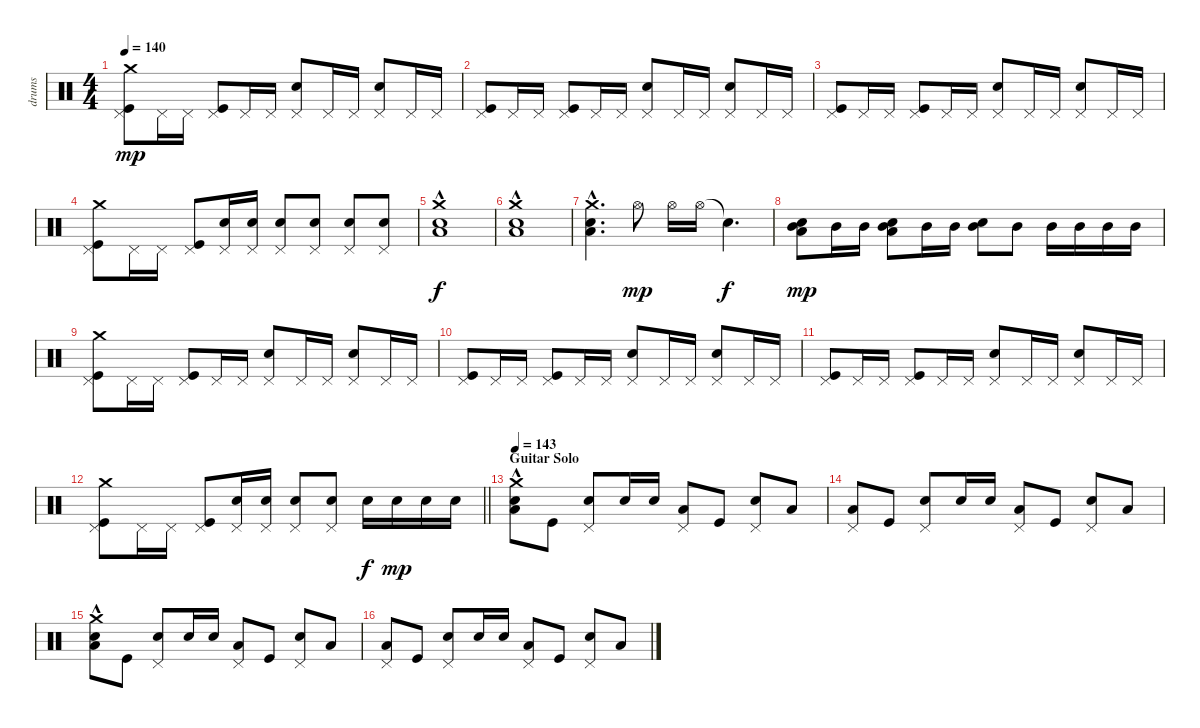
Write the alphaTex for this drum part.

\track ("drums" "drums") {instrument percussion}
\staff {score}
\articulation defaults
\ts (4 4)
\tempo 140
\clef neutral
\ks c
("Crash medium (hit)" "Pedal Hi-Hat (hit)" "Kick (hit)").8{dy mp} "Pedal Hi-Hat (hit)".16 "Pedal Hi-Hat (hit)".16 ("Pedal Hi-Hat (hit)" "Kick (hit)").8 "Pedal Hi-Hat (hit)".16 "Pedal Hi-Hat (hit)".16 ("Pedal Hi-Hat (hit)" "Snare (hit) 2").8 "Pedal Hi-Hat (hit)".16 "Pedal Hi-Hat (hit)".16 ("Pedal Hi-Hat (hit)" "Snare (hit) 2").8 "Pedal Hi-Hat (hit)".16 "Pedal Hi-Hat (hit)".16 |
("Pedal Hi-Hat (hit)" "Kick (hit)").8 "Pedal Hi-Hat (hit)".16 "Pedal Hi-Hat (hit)".16 ("Pedal Hi-Hat (hit)" "Kick (hit)").8 "Pedal Hi-Hat (hit)".16 "Pedal Hi-Hat (hit)".16 ("Pedal Hi-Hat (hit)" "Snare (hit) 2").8 "Pedal Hi-Hat (hit)".16 "Pedal Hi-Hat (hit)".16 ("Pedal Hi-Hat (hit)" "Snare (hit) 2").8 "Pedal Hi-Hat (hit)".16 "Pedal Hi-Hat (hit)".16 |
("Pedal Hi-Hat (hit)" "Kick (hit)").8 "Pedal Hi-Hat (hit)".16 "Pedal Hi-Hat (hit)".16 ("Pedal Hi-Hat (hit)" "Kick (hit)").8 "Pedal Hi-Hat (hit)".16 "Pedal Hi-Hat (hit)".16 ("Pedal Hi-Hat (hit)" "Snare (hit) 2").8 "Pedal Hi-Hat (hit)".16 "Pedal Hi-Hat (hit)".16 ("Pedal Hi-Hat (hit)" "Snare (hit) 2").8 "Pedal Hi-Hat (hit)".16 "Pedal Hi-Hat (hit)".16 |
("Crash medium (hit)" "Pedal Hi-Hat (hit)" "Kick (hit)").8 "Pedal Hi-Hat (hit)".16 "Pedal Hi-Hat (hit)".16 ("Pedal Hi-Hat (hit)" "Kick (hit)").8 ("Pedal Hi-Hat (hit)" "Snare (hit) 2").16 ("Pedal Hi-Hat (hit)" "Snare (hit) 2").16 ("Pedal Hi-Hat (hit)" "Snare (hit) 2").8 ("Pedal Hi-Hat (hit)" "Snare (hit) 2").8 ("Pedal Hi-Hat (hit)" "Snare (hit) 2").8 ("Pedal Hi-Hat (hit)" "Snare (hit) 2").8 |
("Crash medium (hit)"{hac} "Snare (hit) 2"{hac} "Low Floor Tom (hit)"{hac}).1{dy f} |
("Crash medium (hit)"{hac} "Snare (hit) 2"{hac} "Low Floor Tom (hit)"{hac}).1 |
("Crash medium (hit)"{hac} "Snare (hit) 2"{hac} "Low Floor Tom (hit)"{hac}).4{d} "Hi-Hat (open)".8{dy mp} "Hi-Hat (open)".16 "Hi-Hat (open)".16 "Snare (hit)"{t}.4{d dy f} |
("Mid Tom (hit)" "Snare (hit) 2" "Low Floor Tom (hit)").8{dy mp} "Mid Tom (hit)".16 "Mid Tom (hit)".16 ("Mid Tom (hit)" "Snare (hit) 2" "Low Floor Tom (hit)").8 "Mid Tom (hit)".16 "Mid Tom (hit)".16 ("Mid Tom (hit)" "Snare (hit) 2").8 "Mid Tom (hit)".8 "Mid Tom (hit)".16 "Mid Tom (hit)".16 "Mid Tom (hit)".16 "Mid Tom (hit)".16 |
("Crash medium (hit)" "Pedal Hi-Hat (hit)" "Kick (hit)").8 "Pedal Hi-Hat (hit)".16 "Pedal Hi-Hat (hit)".16 ("Pedal Hi-Hat (hit)" "Kick (hit)").8 "Pedal Hi-Hat (hit)".16 "Pedal Hi-Hat (hit)".16 ("Pedal Hi-Hat (hit)" "Snare (hit) 2").8 "Pedal Hi-Hat (hit)".16 "Pedal Hi-Hat (hit)".16 ("Pedal Hi-Hat (hit)" "Snare (hit) 2").8 "Pedal Hi-Hat (hit)".16 "Pedal Hi-Hat (hit)".16 |
("Pedal Hi-Hat (hit)" "Kick (hit)").8 "Pedal Hi-Hat (hit)".16 "Pedal Hi-Hat (hit)".16 ("Pedal Hi-Hat (hit)" "Kick (hit)").8 "Pedal Hi-Hat (hit)".16 "Pedal Hi-Hat (hit)".16 ("Pedal Hi-Hat (hit)" "Snare (hit) 2").8 "Pedal Hi-Hat (hit)".16 "Pedal Hi-Hat (hit)".16 ("Pedal Hi-Hat (hit)" "Snare (hit) 2").8 "Pedal Hi-Hat (hit)".16 "Pedal Hi-Hat (hit)".16 |
("Pedal Hi-Hat (hit)" "Kick (hit)").8 "Pedal Hi-Hat (hit)".16 "Pedal Hi-Hat (hit)".16 ("Pedal Hi-Hat (hit)" "Kick (hit)").8 "Pedal Hi-Hat (hit)".16 "Pedal Hi-Hat (hit)".16 ("Pedal Hi-Hat (hit)" "Snare (hit) 2").8 "Pedal Hi-Hat (hit)".16 "Pedal Hi-Hat (hit)".16 ("Pedal Hi-Hat (hit)" "Snare (hit) 2").8 "Pedal Hi-Hat (hit)".16 "Pedal Hi-Hat (hit)".16 |
\barLineRight lightlight
("Crash medium (hit)" "Pedal Hi-Hat (hit)" "Kick (hit)").8 "Pedal Hi-Hat (hit)".16 "Pedal Hi-Hat (hit)".16 ("Pedal Hi-Hat (hit)" "Kick (hit)").8 ("Pedal Hi-Hat (hit)" "Snare (hit) 2").16 ("Pedal Hi-Hat (hit)" "Snare (hit) 2").16 ("Pedal Hi-Hat (hit)" "Snare (hit) 2").8 ("Pedal Hi-Hat (hit)" "Snare (hit) 2").8 "Snare (hit) 2".16{dy f} "Snare (hit) 2".16{dy mp} "Snare (hit) 2".16 "Snare (hit) 2".16 |
\section ("" "Guitar Solo")
\tempo 143
("Crash medium (hit)"{hac} "Snare (hit) 2" "Low Floor Tom (hit)").8 "Kick (hit)".8 ("Pedal Hi-Hat (hit)" "Snare (hit) 2").8 "Snare (hit) 2".16 "Snare (hit) 2".16 ("Pedal Hi-Hat (hit)" "Low Floor Tom (hit)").8 "Kick (hit)".8 ("Pedal Hi-Hat (hit)" "Snare (hit) 2").8 "Low Floor Tom (hit)".8 |
("Pedal Hi-Hat (hit)" "Low Floor Tom (hit)").8 "Kick (hit)".8 ("Pedal Hi-Hat (hit)" "Snare (hit) 2").8 "Snare (hit) 2".16 "Snare (hit) 2".16 ("Pedal Hi-Hat (hit)" "Low Floor Tom (hit)").8 "Kick (hit)".8 ("Pedal Hi-Hat (hit)" "Snare (hit) 2").8 "Low Floor Tom (hit)".8 |
("Crash medium (hit)"{hac} "Snare (hit) 2" "Low Floor Tom (hit)").8 "Kick (hit)".8 ("Pedal Hi-Hat (hit)" "Snare (hit) 2").8 "Snare (hit) 2".16 "Snare (hit) 2".16 ("Pedal Hi-Hat (hit)" "Low Floor Tom (hit)").8 "Kick (hit)".8 ("Pedal Hi-Hat (hit)" "Snare (hit) 2").8 "Low Floor Tom (hit)".8 |
("Pedal Hi-Hat (hit)" "Low Floor Tom (hit)").8 "Kick (hit)".8 ("Pedal Hi-Hat (hit)" "Snare (hit) 2").8 "Snare (hit) 2".16 "Snare (hit) 2".16 ("Pedal Hi-Hat (hit)" "Low Floor Tom (hit)").8 "Kick (hit)".8 ("Pedal Hi-Hat (hit)" "Snare (hit) 2").8 "Low Floor Tom (hit)".8
